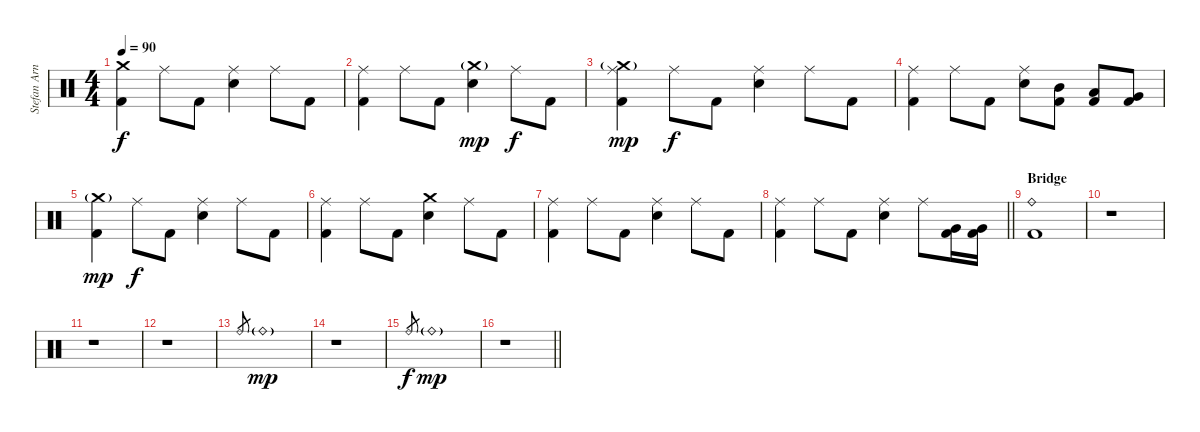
\track ("Stefan Arnold" "Stefan Arn") {instrument percussion}
\staff {score}
\articulation defaults
\ts (4 4)
\tempo 90
\clef neutral
\ks c
("Crash medium (hit)" "Kick (hit) 2").4{dy f} "Ride (middle)".8 "Kick (hit) 2".8 ("Ride (middle)" "Electric Snare (hit)").4 "Ride (middle)".8 "Kick (hit) 2".8 |
("Ride (middle)" "Kick (hit) 2").4 "Ride (middle)".8 "Kick (hit) 2".8 ("Crash medium (hit)"{g} "Electric Snare (hit)").4{dy mp} "Ride (middle)".8{dy f} "Kick (hit) 2".8 |
("Ride (middle)" "Crash medium (hit)"{g} "Kick (hit) 2").4{dy mp} "Ride (middle)".8{dy f} "Kick (hit) 2".8 ("Ride (middle)" "Electric Snare (hit)").4 "Ride (middle)".8 "Kick (hit) 2".8 |
("Ride (middle)" "Kick (hit) 2").4 "Ride (middle)".8 "Kick (hit) 2".8 ("Ride (middle)" "Electric Snare (hit)").8 ("Mid Tom (hit)" "Kick (hit) 2").8 ("Low Tom (hit)" "Kick (hit) 2").8 ("Very Low Tom (hit)" "Kick (hit) 2").8 |
("Crash medium (hit)"{g} "Kick (hit) 2").4{dy mp} "Ride (middle)".8{dy f} "Kick (hit) 2".8 ("Ride (middle)" "Electric Snare (hit)").4 "Ride (middle)".8 "Kick (hit) 2".8 |
("Ride (middle)" "Kick (hit) 2").4 "Ride (middle)".8 "Kick (hit) 2".8 ("Crash medium (hit)" "Electric Snare (hit)").4 "Ride (middle)".8 "Kick (hit) 2".8 |
("Ride (middle)" "Kick (hit) 2").4 "Ride (middle)".8 "Kick (hit) 2".8 ("Ride (middle)" "Electric Snare (hit)").4 "Ride (middle)".8 "Kick (hit) 2".8 |
\barLineRight lightlight
("Ride (middle)" "Kick (hit) 2").4 "Ride (middle)".8 "Kick (hit) 2".8 ("Ride (middle)" "Electric Snare (hit)").4 "Ride (middle)".8 ("Very Low Tom (hit)" "Kick (hit) 2").16 ("Very Low Tom (hit)" "Kick (hit) 2").16 |
\section ("" "Bridge")
("Ride (bell)" "Kick (hit) 2").1 |
r.1 |
r.1 |
r.1 |
"Ride (bell)".8{gr} "Ride (bell)"{g}.1{dy mp} |
r.1 |
"Ride (bell)".8{gr dy f} "Ride (bell)"{g}.1{dy mp} |
\barLineRight lightlight
r.1
